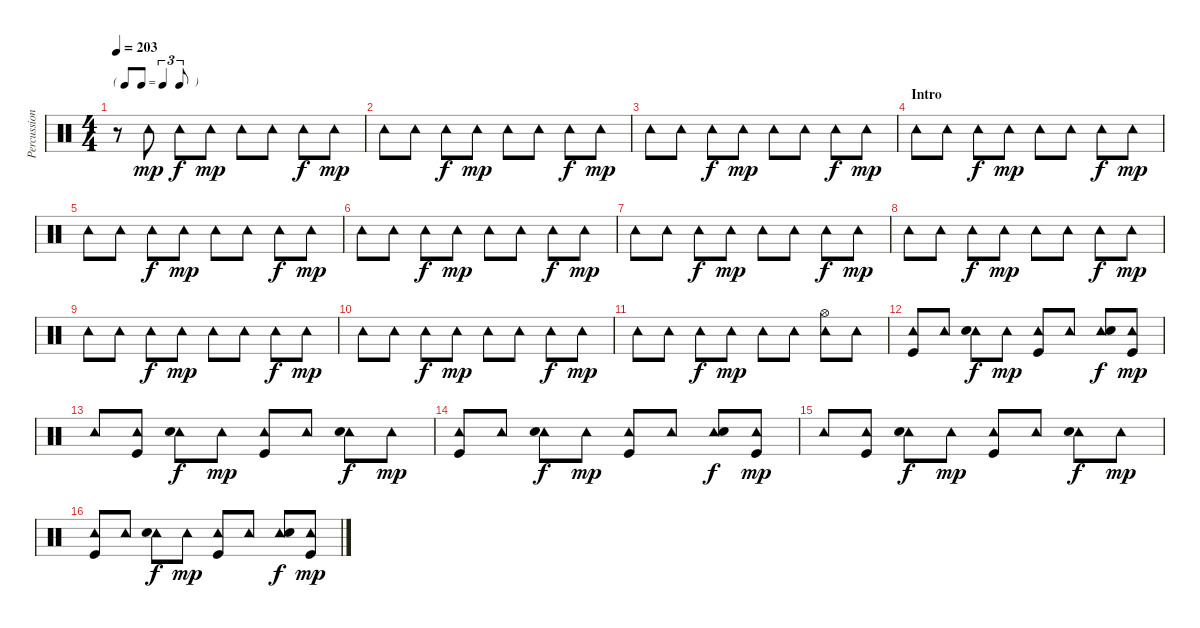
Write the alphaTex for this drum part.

\track ("Percussion" "Percussion") {instrument percussion}
\staff {score}
\articulation defaults
\ts (4 4)
\tf triplet8th
\tempo 203
\clef neutral
\ks c
r.8{dy mp} "Tambourine (hit)".8 "Tambourine (hit)".8{dy f} "Tambourine (hit)".8{dy mp} "Tambourine (hit)".8 "Tambourine (hit)".8 "Tambourine (hit)".8{dy f} "Tambourine (hit)".8{dy mp} |
"Tambourine (hit)".8 "Tambourine (hit)".8 "Tambourine (hit)".8{dy f} "Tambourine (hit)".8{dy mp} "Tambourine (hit)".8 "Tambourine (hit)".8 "Tambourine (hit)".8{dy f} "Tambourine (hit)".8{dy mp} |
"Tambourine (hit)".8 "Tambourine (hit)".8 "Tambourine (hit)".8{dy f} "Tambourine (hit)".8{dy mp} "Tambourine (hit)".8 "Tambourine (hit)".8 "Tambourine (hit)".8{dy f} "Tambourine (hit)".8{dy mp} |
\section ("" "Intro")
"Tambourine (hit)".8 "Tambourine (hit)".8 "Tambourine (hit)".8{dy f} "Tambourine (hit)".8{dy mp} "Tambourine (hit)".8 "Tambourine (hit)".8 "Tambourine (hit)".8{dy f} "Tambourine (hit)".8{dy mp} |
"Tambourine (hit)".8 "Tambourine (hit)".8 "Tambourine (hit)".8{dy f} "Tambourine (hit)".8{dy mp} "Tambourine (hit)".8 "Tambourine (hit)".8 "Tambourine (hit)".8{dy f} "Tambourine (hit)".8{dy mp} |
"Tambourine (hit)".8 "Tambourine (hit)".8 "Tambourine (hit)".8{dy f} "Tambourine (hit)".8{dy mp} "Tambourine (hit)".8 "Tambourine (hit)".8 "Tambourine (hit)".8{dy f} "Tambourine (hit)".8{dy mp} |
"Tambourine (hit)".8 "Tambourine (hit)".8 "Tambourine (hit)".8{dy f} "Tambourine (hit)".8{dy mp} "Tambourine (hit)".8 "Tambourine (hit)".8 "Tambourine (hit)".8{dy f} "Tambourine (hit)".8{dy mp} |
"Tambourine (hit)".8 "Tambourine (hit)".8 "Tambourine (hit)".8{dy f} "Tambourine (hit)".8{dy mp} "Tambourine (hit)".8 "Tambourine (hit)".8 "Tambourine (hit)".8{dy f} "Tambourine (hit)".8{dy mp} |
"Tambourine (hit)".8 "Tambourine (hit)".8 "Tambourine (hit)".8{dy f} "Tambourine (hit)".8{dy mp} "Tambourine (hit)".8 "Tambourine (hit)".8 "Tambourine (hit)".8{dy f} "Tambourine (hit)".8{dy mp} |
"Tambourine (hit)".8 "Tambourine (hit)".8 "Tambourine (hit)".8{dy f} "Tambourine (hit)".8{dy mp} "Tambourine (hit)".8 "Tambourine (hit)".8 "Tambourine (hit)".8{dy f} "Tambourine (hit)".8{dy mp} |
"Tambourine (hit)".8 "Tambourine (hit)".8 "Tambourine (hit)".8{dy f} "Tambourine (hit)".8{dy mp} "Tambourine (hit)".8 "Tambourine (hit)".8 ("Tambourine (hit)" "Hi-Hat (open)").8 "Tambourine (hit)".8 |
("Tambourine (hit)" "Kick (hit)").8 "Tambourine (hit)".8 ("Tambourine (hit)" "Snare (hit) 2").8{dy f} "Tambourine (hit)".8{dy mp} ("Tambourine (hit)" "Kick (hit)").8 "Tambourine (hit)".8 ("Tambourine (hit)" "Snare (hit) 2").8{dy f} ("Tambourine (hit)" "Kick (hit)").8{dy mp} |
"Tambourine (hit)".8 ("Tambourine (hit)" "Kick (hit)").8 ("Tambourine (hit)" "Snare (hit) 2").8{dy f} "Tambourine (hit)".8{dy mp} ("Tambourine (hit)" "Kick (hit)").8 "Tambourine (hit)".8 ("Tambourine (hit)" "Snare (hit) 2").8{dy f} "Tambourine (hit)".8{dy mp} |
("Tambourine (hit)" "Kick (hit)").8 "Tambourine (hit)".8 ("Tambourine (hit)" "Snare (hit) 2").8{dy f} "Tambourine (hit)".8{dy mp} ("Tambourine (hit)" "Kick (hit)").8 "Tambourine (hit)".8 ("Tambourine (hit)" "Snare (hit) 2").8{dy f} ("Tambourine (hit)" "Kick (hit)").8{dy mp} |
"Tambourine (hit)".8 ("Tambourine (hit)" "Kick (hit)").8 ("Tambourine (hit)" "Snare (hit) 2").8{dy f} "Tambourine (hit)".8{dy mp} ("Tambourine (hit)" "Kick (hit)").8 "Tambourine (hit)".8 ("Tambourine (hit)" "Snare (hit) 2").8{dy f} "Tambourine (hit)".8{dy mp} |
("Tambourine (hit)" "Kick (hit)").8 "Tambourine (hit)".8 ("Tambourine (hit)" "Snare (hit) 2").8{dy f} "Tambourine (hit)".8{dy mp} ("Tambourine (hit)" "Kick (hit)").8 "Tambourine (hit)".8 ("Tambourine (hit)" "Snare (hit) 2").8{dy f} ("Tambourine (hit)" "Kick (hit)").8{dy mp}
